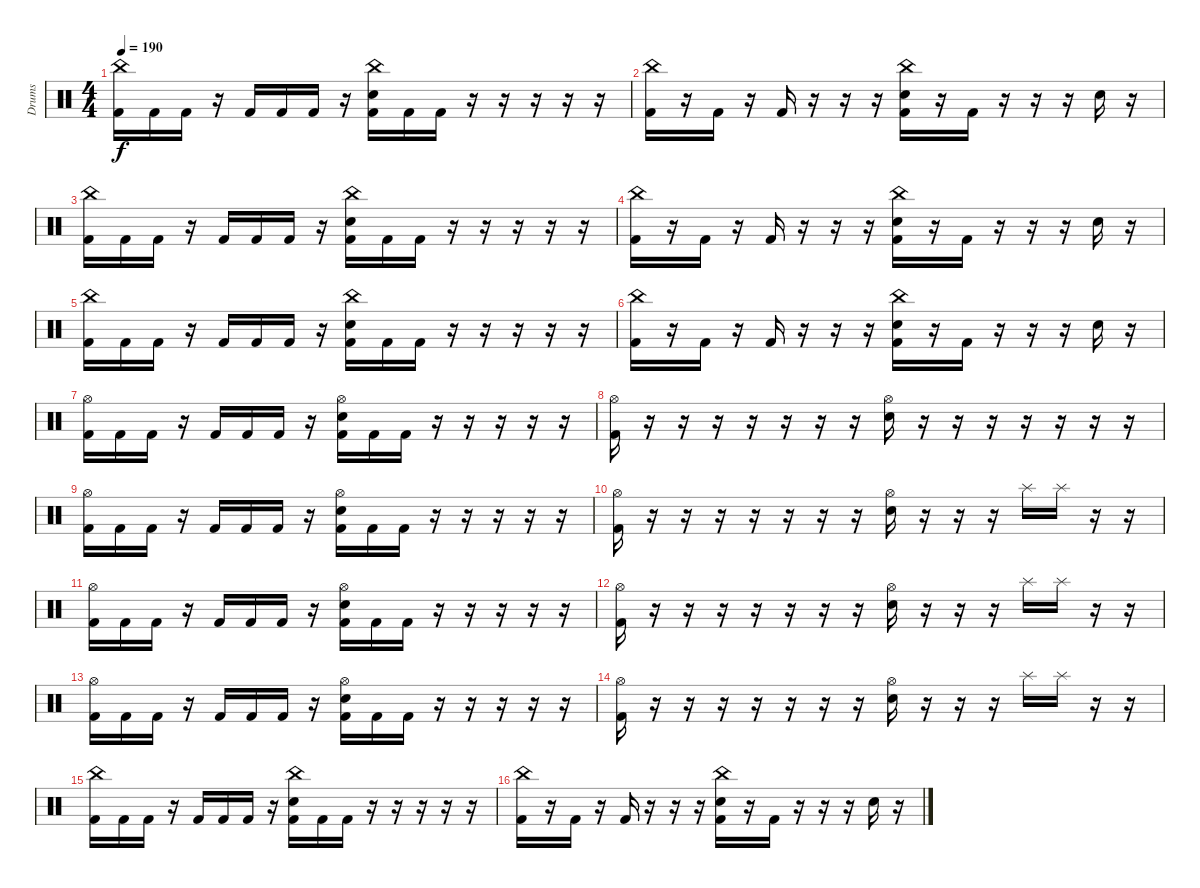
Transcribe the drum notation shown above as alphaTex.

\track ("Drums" "Drums") {instrument percussion}
\staff {score}
\articulation defaults
\ts (4 4)
\tempo 190
\clef neutral
\ks c
("China (hit)" "Kick (hit) 2").16{dy f} "Kick (hit) 2".16 "Kick (hit) 2".16 r.16 "Kick (hit) 2".16 "Kick (hit) 2".16 "Kick (hit) 2".16 r.16 ("China (hit)" "Electric Snare (hit)" "Kick (hit) 2").16 "Kick (hit) 2".16 "Kick (hit) 2".16 r.16 r.16 r.16 r.16 r.16 |
("China (hit)" "Kick (hit) 2").16 r.16 "Kick (hit) 2".16 r.16 "Kick (hit) 2".16 r.16 r.16 r.16 ("China (hit)" "Electric Snare (hit)" "Kick (hit) 2").16 r.16 "Kick (hit) 2".16 r.16 r.16 r.16 "Electric Snare (hit)".16 r.16 |
("China (hit)" "Kick (hit) 2").16 "Kick (hit) 2".16 "Kick (hit) 2".16 r.16 "Kick (hit) 2".16 "Kick (hit) 2".16 "Kick (hit) 2".16 r.16 ("China (hit)" "Electric Snare (hit)" "Kick (hit) 2").16 "Kick (hit) 2".16 "Kick (hit) 2".16 r.16 r.16 r.16 r.16 r.16 |
("China (hit)" "Kick (hit) 2").16 r.16 "Kick (hit) 2".16 r.16 "Kick (hit) 2".16 r.16 r.16 r.16 ("China (hit)" "Electric Snare (hit)" "Kick (hit) 2").16 r.16 "Kick (hit) 2".16 r.16 r.16 r.16 "Electric Snare (hit)".16 r.16 |
("China (hit)" "Kick (hit) 2").16 "Kick (hit) 2".16 "Kick (hit) 2".16 r.16 "Kick (hit) 2".16 "Kick (hit) 2".16 "Kick (hit) 2".16 r.16 ("China (hit)" "Electric Snare (hit)" "Kick (hit) 2").16 "Kick (hit) 2".16 "Kick (hit) 2".16 r.16 r.16 r.16 r.16 r.16 |
("China (hit)" "Kick (hit) 2").16 r.16 "Kick (hit) 2".16 r.16 "Kick (hit) 2".16 r.16 r.16 r.16 ("China (hit)" "Electric Snare (hit)" "Kick (hit) 2").16 r.16 "Kick (hit) 2".16 r.16 r.16 r.16 "Electric Snare (hit)".16 r.16 |
("Hi-Hat (open)" "Kick (hit) 2").16 "Kick (hit) 2".16 "Kick (hit) 2".16 r.16 "Kick (hit) 2".16 "Kick (hit) 2".16 "Kick (hit) 2".16 r.16 ("Hi-Hat (open)" "Electric Snare (hit)" "Kick (hit) 2").16 "Kick (hit) 2".16 "Kick (hit) 2".16 r.16 r.16 r.16 r.16 r.16 |
("Hi-Hat (open)" "Kick (hit) 2").16 r.16 r.16 r.16 r.16 r.16 r.16 r.16 ("Hi-Hat (open)" "Electric Snare (hit)").16 r.16 r.16 r.16 r.16 r.16 r.16 r.16 |
("Hi-Hat (open)" "Kick (hit) 2").16 "Kick (hit) 2".16 "Kick (hit) 2".16 r.16 "Kick (hit) 2".16 "Kick (hit) 2".16 "Kick (hit) 2".16 r.16 ("Hi-Hat (open)" "Electric Snare (hit)" "Kick (hit) 2").16 "Kick (hit) 2".16 "Kick (hit) 2".16 r.16 r.16 r.16 r.16 r.16 |
("Hi-Hat (open)" "Kick (hit) 2").16 r.16 r.16 r.16 r.16 r.16 r.16 r.16 ("Hi-Hat (open)" "Electric Snare (hit)").16 r.16 r.16 r.16 "Splash (hit)".16 "Splash (hit)".16 r.16 r.16 |
("Hi-Hat (open)" "Kick (hit) 2").16 "Kick (hit) 2".16 "Kick (hit) 2".16 r.16 "Kick (hit) 2".16 "Kick (hit) 2".16 "Kick (hit) 2".16 r.16 ("Hi-Hat (open)" "Electric Snare (hit)" "Kick (hit) 2").16 "Kick (hit) 2".16 "Kick (hit) 2".16 r.16 r.16 r.16 r.16 r.16 |
("Hi-Hat (open)" "Kick (hit) 2").16 r.16 r.16 r.16 r.16 r.16 r.16 r.16 ("Hi-Hat (open)" "Electric Snare (hit)").16 r.16 r.16 r.16 "Splash (hit)".16 "Splash (hit)".16 r.16 r.16 |
("Hi-Hat (open)" "Kick (hit) 2").16 "Kick (hit) 2".16 "Kick (hit) 2".16 r.16 "Kick (hit) 2".16 "Kick (hit) 2".16 "Kick (hit) 2".16 r.16 ("Hi-Hat (open)" "Electric Snare (hit)" "Kick (hit) 2").16 "Kick (hit) 2".16 "Kick (hit) 2".16 r.16 r.16 r.16 r.16 r.16 |
("Hi-Hat (open)" "Kick (hit) 2").16 r.16 r.16 r.16 r.16 r.16 r.16 r.16 ("Hi-Hat (open)" "Electric Snare (hit)").16 r.16 r.16 r.16 "Splash (hit)".16 "Splash (hit)".16 r.16 r.16 |
("China (hit)" "Kick (hit) 2").16 "Kick (hit) 2".16 "Kick (hit) 2".16 r.16 "Kick (hit) 2".16 "Kick (hit) 2".16 "Kick (hit) 2".16 r.16 ("China (hit)" "Electric Snare (hit)" "Kick (hit) 2").16 "Kick (hit) 2".16 "Kick (hit) 2".16 r.16 r.16 r.16 r.16 r.16 |
("China (hit)" "Kick (hit) 2").16 r.16 "Kick (hit) 2".16 r.16 "Kick (hit) 2".16 r.16 r.16 r.16 ("China (hit)" "Electric Snare (hit)" "Kick (hit) 2").16 r.16 "Kick (hit) 2".16 r.16 r.16 r.16 "Electric Snare (hit)".16 r.16
